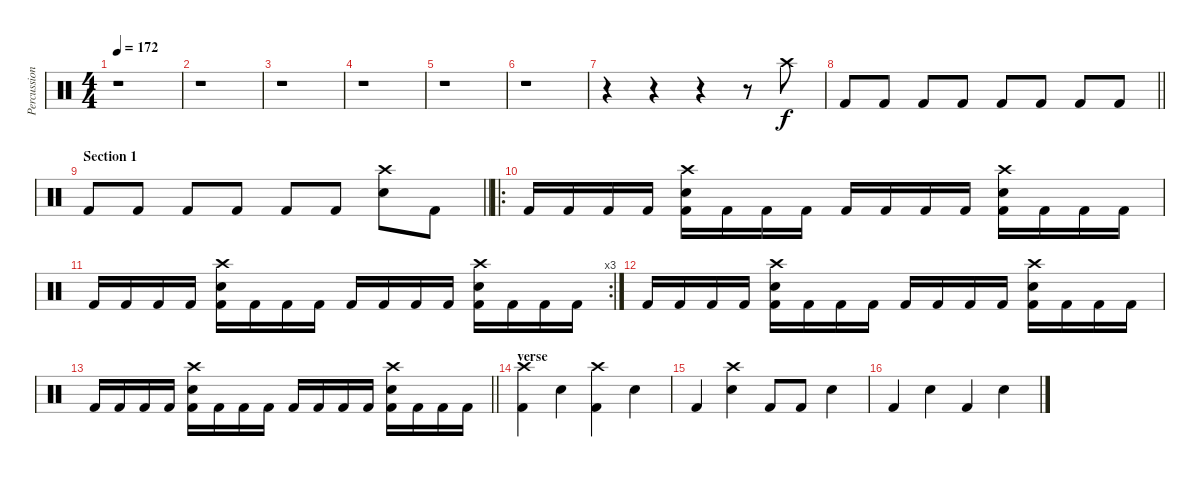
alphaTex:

\track ("Percussion" "Percussion") {instrument percussion}
\staff {score}
\articulation defaults
\ts (4 4)
\tempo 172
\clef neutral
\ks c
r.1{dy f} |
r.1 |
r.1 |
r.1 |
r.1 |
r.1 |
r.4 r.4 r.4 r.8 "Crash high (hit)".8 |
\barLineRight lightlight "Kick (hit) 2".8 "Kick (hit) 2".8 "Kick (hit) 2".8 "Kick (hit) 2".8 "Kick (hit) 2".8 "Kick (hit) 2".8 "Kick (hit) 2".8 "Kick (hit) 2".8
|
\section ("" "Section 1")
\barLineRight lightlight "Kick (hit) 2".8 "Kick (hit) 2".8 "Kick (hit) 2".8 "Kick (hit) 2".8 "Kick (hit) 2".8 "Kick (hit) 2".8
("Crash high (hit)" "Electric Snare (hit)").8 "Kick (hit) 2".8 |
\ro "Kick (hit) 2".16 "Kick (hit) 2".16 "Kick (hit) 2".16 "Kick (hit) 2".16
("Crash high (hit)" "Electric Snare (hit)" "Kick (hit) 2").16 "Kick (hit) 2".16 "Kick (hit) 2".16 "Kick (hit) 2".16 "Kick (hit) 2".16 "Kick (hit) 2".16 "Kick (hit) 2".16 "Kick (hit) 2".16 ("Crash high (hit)" "Electric Snare (hit)" "Kick (hit) 2").16 "Kick (hit) 2".16 "Kick (hit) 2".16 "Kick (hit) 2".16 |
\rc 3 "Kick (hit) 2".16 "Kick (hit) 2".16 "Kick (hit) 2".16 "Kick (hit) 2".16
("Crash high (hit)" "Electric Snare (hit)" "Kick (hit) 2").16 "Kick (hit) 2".16 "Kick (hit) 2".16 "Kick (hit) 2".16 "Kick (hit) 2".16 "Kick (hit) 2".16 "Kick (hit) 2".16 "Kick (hit) 2".16 ("Crash high (hit)" "Electric Snare (hit)" "Kick (hit) 2").16 "Kick (hit) 2".16 "Kick (hit) 2".16 "Kick (hit) 2".16 |
"Kick (hit) 2".16 "Kick (hit) 2".16 "Kick (hit) 2".16 "Kick (hit) 2".16 ("Crash high (hit)" "Electric Snare (hit)" "Kick (hit) 2").16 "Kick (hit) 2".16 "Kick (hit) 2".16 "Kick (hit) 2".16 "Kick (hit) 2".16 "Kick (hit) 2".16 "Kick (hit) 2".16 "Kick (hit) 2".16 ("Crash high (hit)" "Electric Snare (hit)" "Kick (hit) 2").16 "Kick (hit) 2".16 "Kick (hit) 2".16 "Kick (hit) 2".16 |
\barLineRight lightlight "Kick (hit) 2".16 "Kick (hit) 2".16 "Kick (hit) 2".16 "Kick (hit) 2".16
("Crash high (hit)" "Electric Snare (hit)" "Kick (hit) 2").16 "Kick (hit) 2".16 "Kick (hit) 2".16 "Kick (hit) 2".16 "Kick (hit) 2".16 "Kick (hit) 2".16 "Kick (hit) 2".16 "Kick (hit) 2".16 ("Crash high (hit)" "Electric Snare (hit)" "Kick (hit) 2").16 "Kick (hit) 2".16 "Kick (hit) 2".16 "Kick (hit) 2".16 |
\section ("" "verse")
("Crash high (hit)" "Kick (hit) 2").4 "Electric Snare (hit)".4 ("Crash high (hit)" "Kick (hit) 2").4 "Electric Snare (hit)".4 |
"Kick (hit) 2".4 ("Crash high (hit)" "Electric Snare (hit)").4 "Kick (hit) 2".8 "Kick (hit) 2".8 "Electric Snare (hit)".4 |
"Kick (hit) 2".4 "Electric Snare (hit)".4 "Kick (hit) 2".4 "Electric Snare (hit)".4
